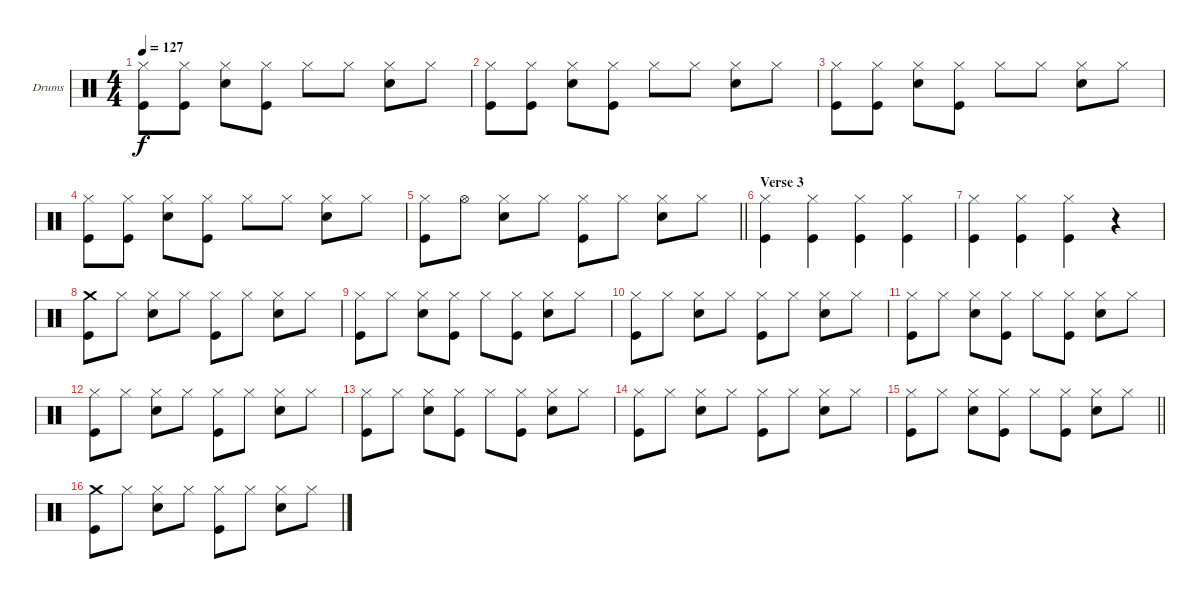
\bracketExtendMode groupsimilarinstruments
\firstSystemTrackNameOrientation horizontal
\otherSystemsTrackNameOrientation horizontal
\track ("Drumkit" "Drums") {instrument percussion}
\staff {score}
\articulation defaults
\ts (4 4)
\tempo 127
\clef neutral
\ks c
("Hi-Hat (closed)" "Kick (hit)").8{dy f} ("Hi-Hat (closed)" "Kick (hit)").8 ("Hi-Hat (closed)" "Snare (hit) 2").8 ("Hi-Hat (closed)" "Kick (hit)").8 "Hi-Hat (closed)".8 "Hi-Hat (closed)".8 ("Hi-Hat (closed)" "Snare (hit) 2").8 "Hi-Hat (closed)".8 |
("Hi-Hat (closed)" "Kick (hit)").8 ("Hi-Hat (closed)" "Kick (hit)").8 ("Hi-Hat (closed)" "Snare (hit) 2").8 ("Hi-Hat (closed)" "Kick (hit)").8 "Hi-Hat (closed)".8 "Hi-Hat (closed)".8 ("Hi-Hat (closed)" "Snare (hit) 2").8 "Hi-Hat (closed)".8 |
("Hi-Hat (closed)" "Kick (hit)").8 ("Hi-Hat (closed)" "Kick (hit)").8 ("Hi-Hat (closed)" "Snare (hit) 2").8 ("Hi-Hat (closed)" "Kick (hit)").8 "Hi-Hat (closed)".8 "Hi-Hat (closed)".8 ("Hi-Hat (closed)" "Snare (hit) 2").8 "Hi-Hat (closed)".8 |
("Hi-Hat (closed)" "Kick (hit)").8 ("Hi-Hat (closed)" "Kick (hit)").8 ("Hi-Hat (closed)" "Snare (hit) 2").8 ("Hi-Hat (closed)" "Kick (hit)").8 "Hi-Hat (closed)".8 "Hi-Hat (closed)".8 ("Hi-Hat (closed)" "Snare (hit) 2").8 "Hi-Hat (closed)".8 |
\barLineRight lightlight
("Hi-Hat (closed)" "Kick (hit)").8 "Hi-Hat (open)".8 ("Hi-Hat (closed)" "Snare (hit) 2").8 "Hi-Hat (closed)".8 ("Hi-Hat (closed)" "Kick (hit)").8 "Hi-Hat (closed)".8 ("Hi-Hat (closed)" "Snare (hit) 2").8 "Hi-Hat (closed)".8 |
\section ("" "Verse 3")
("Hi-Hat (closed)" "Kick (hit)").4 ("Hi-Hat (closed)" "Kick (hit)").4 ("Hi-Hat (closed)" "Kick (hit)").4 ("Hi-Hat (closed)" "Kick (hit)").4 |
("Hi-Hat (closed)" "Kick (hit)").4 ("Hi-Hat (closed)" "Kick (hit)").4 ("Hi-Hat (closed)" "Kick (hit)").4 r.4 |
("Crash medium (hit)" "Kick (hit)").8 "Hi-Hat (closed)".8 ("Hi-Hat (closed)" "Snare (hit) 2").8 "Hi-Hat (closed)".8 ("Hi-Hat (closed)" "Kick (hit)").8 "Hi-Hat (closed)".8 ("Hi-Hat (closed)" "Snare (hit) 2").8 "Hi-Hat (closed)".8 |
("Hi-Hat (closed)" "Kick (hit)").8 "Hi-Hat (closed)".8 ("Hi-Hat (closed)" "Snare (hit) 2").8 ("Hi-Hat (closed)" "Kick (hit)").8 "Hi-Hat (closed)".8 ("Hi-Hat (closed)" "Kick (hit)").8 ("Hi-Hat (closed)" "Snare (hit) 2").8 "Hi-Hat (closed)".8 |
("Hi-Hat (closed)" "Kick (hit)").8 "Hi-Hat (closed)".8 ("Hi-Hat (closed)" "Snare (hit) 2").8 "Hi-Hat (closed)".8 ("Hi-Hat (closed)" "Kick (hit)").8 "Hi-Hat (closed)".8 ("Hi-Hat (closed)" "Snare (hit) 2").8 "Hi-Hat (closed)".8 |
("Hi-Hat (closed)" "Kick (hit)").8 "Hi-Hat (closed)".8 ("Hi-Hat (closed)" "Snare (hit) 2").8 ("Hi-Hat (closed)" "Kick (hit)").8 "Hi-Hat (closed)".8 ("Hi-Hat (closed)" "Kick (hit)").8 ("Hi-Hat (closed)" "Snare (hit) 2").8 "Hi-Hat (closed)".8 |
("Hi-Hat (closed)" "Kick (hit)").8 "Hi-Hat (closed)".8 ("Hi-Hat (closed)" "Snare (hit) 2").8 "Hi-Hat (closed)".8 ("Hi-Hat (closed)" "Kick (hit)").8 "Hi-Hat (closed)".8 ("Hi-Hat (closed)" "Snare (hit) 2").8 "Hi-Hat (closed)".8 |
("Hi-Hat (closed)" "Kick (hit)").8 "Hi-Hat (closed)".8 ("Hi-Hat (closed)" "Snare (hit) 2").8 ("Hi-Hat (closed)" "Kick (hit)").8 "Hi-Hat (closed)".8 ("Hi-Hat (closed)" "Kick (hit)").8 ("Hi-Hat (closed)" "Snare (hit) 2").8 "Hi-Hat (closed)".8 |
("Hi-Hat (closed)" "Kick (hit)").8 "Hi-Hat (closed)".8 ("Hi-Hat (closed)" "Snare (hit) 2").8 "Hi-Hat (closed)".8 ("Hi-Hat (closed)" "Kick (hit)").8 "Hi-Hat (closed)".8 ("Hi-Hat (closed)" "Snare (hit) 2").8 "Hi-Hat (closed)".8 |
\barLineRight lightlight
("Hi-Hat (closed)" "Kick (hit)").8 "Hi-Hat (closed)".8 ("Hi-Hat (closed)" "Snare (hit) 2").8 ("Hi-Hat (closed)" "Kick (hit)").8 "Hi-Hat (closed)".8 ("Hi-Hat (closed)" "Kick (hit)").8 ("Hi-Hat (closed)" "Snare (hit) 2").8 "Hi-Hat (closed)".8 |
("Crash medium (hit)" "Kick (hit)").8 "Hi-Hat (closed)".8 ("Hi-Hat (closed)" "Snare (hit) 2").8 "Hi-Hat (closed)".8 ("Hi-Hat (closed)" "Kick (hit)").8 "Hi-Hat (closed)".8 ("Hi-Hat (closed)" "Snare (hit) 2").8 "Hi-Hat (closed)".8
